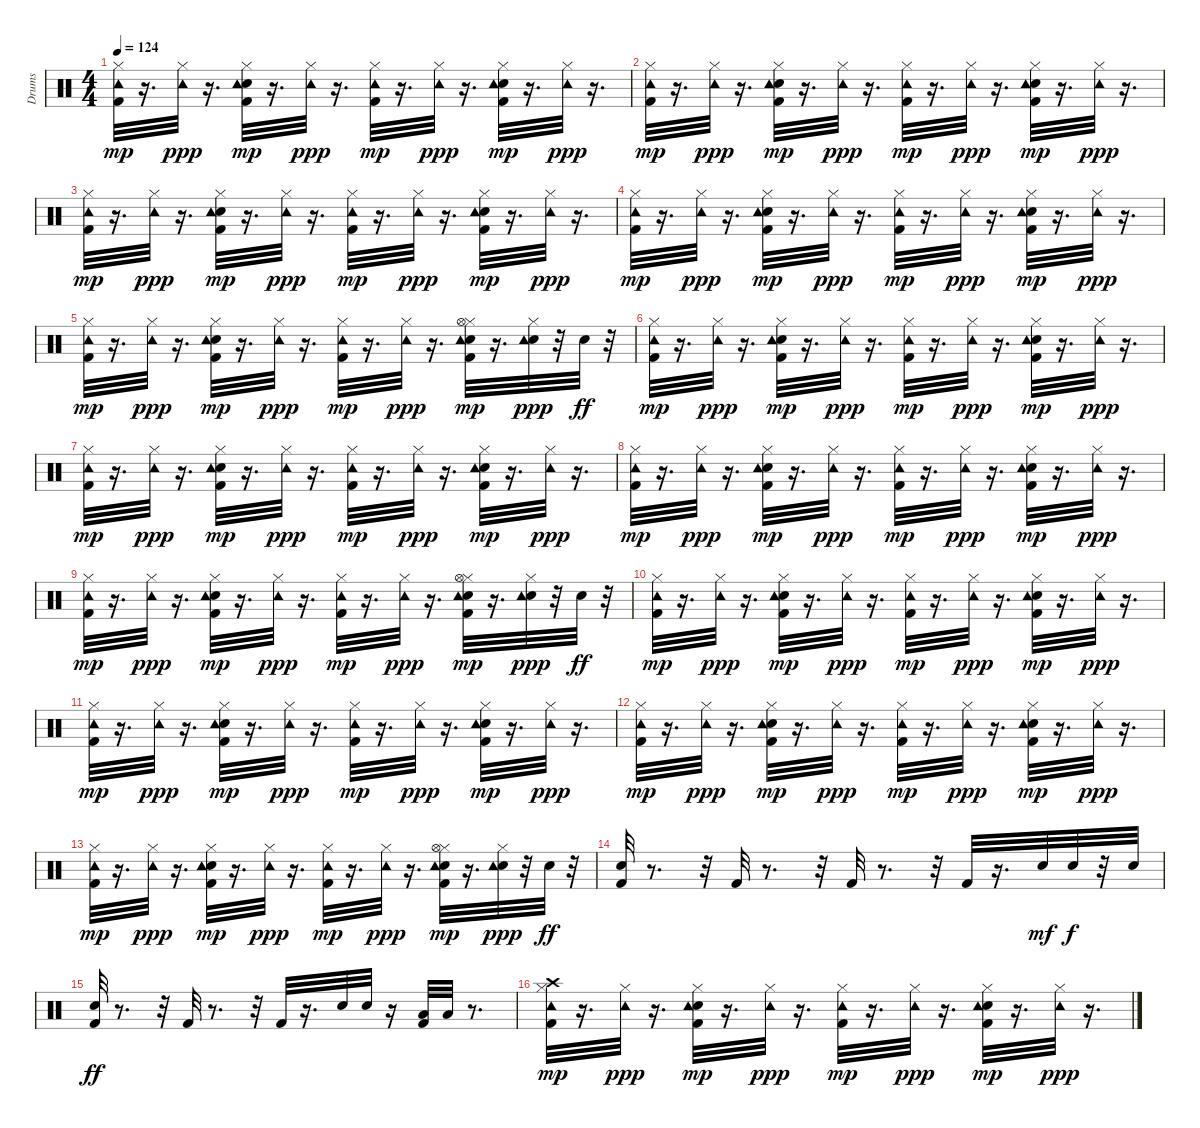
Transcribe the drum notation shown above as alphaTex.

\track ("Drums" "Drums") {instrument percussion}
\staff {score}
\articulation defaults
\ts (4 4)
\tempo 124
\clef neutral
\ks c
("Kick (hit) 2" "Hi-Hat (closed)" "Tambourine (hit)").32{dy mp} r.16{d} ("Hi-Hat (closed)" "Tambourine (hit)").32{dy ppp} r.16{d} ("Kick (hit) 2" "Electric Snare (hit)" "Hi-Hat (closed)" "Tambourine (hit)").32{dy mp} r.16{d} ("Hi-Hat (closed)" "Tambourine (hit)").32{dy ppp} r.16{d} ("Kick (hit) 2" "Hi-Hat (closed)" "Tambourine (hit)").32{dy mp} r.16{d} ("Hi-Hat (closed)" "Tambourine (hit)").32{dy ppp} r.16{d} ("Kick (hit) 2" "Electric Snare (hit)" "Hi-Hat (closed)" "Tambourine (hit)").32{dy mp} r.16{d} ("Hi-Hat (closed)" "Tambourine (hit)").32{dy ppp} r.16{d} |
("Kick (hit) 2" "Hi-Hat (closed)" "Tambourine (hit)").32{dy mp} r.16{d} ("Hi-Hat (closed)" "Tambourine (hit)").32{dy ppp} r.16{d} ("Kick (hit) 2" "Electric Snare (hit)" "Hi-Hat (closed)" "Tambourine (hit)").32{dy mp} r.16{d} ("Hi-Hat (closed)" "Tambourine (hit)").32{dy ppp} r.16{d} ("Kick (hit) 2" "Hi-Hat (closed)" "Tambourine (hit)").32{dy mp} r.16{d} ("Hi-Hat (closed)" "Tambourine (hit)").32{dy ppp} r.16{d} ("Kick (hit) 2" "Electric Snare (hit)" "Hi-Hat (closed)" "Tambourine (hit)").32{dy mp} r.16{d} ("Hi-Hat (closed)" "Tambourine (hit)").32{dy ppp} r.16{d} |
("Kick (hit) 2" "Hi-Hat (closed)" "Tambourine (hit)").32{dy mp} r.16{d} ("Hi-Hat (closed)" "Tambourine (hit)").32{dy ppp} r.16{d} ("Kick (hit) 2" "Electric Snare (hit)" "Hi-Hat (closed)" "Tambourine (hit)").32{dy mp} r.16{d} ("Hi-Hat (closed)" "Tambourine (hit)").32{dy ppp} r.16{d} ("Kick (hit) 2" "Hi-Hat (closed)" "Tambourine (hit)").32{dy mp} r.16{d} ("Hi-Hat (closed)" "Tambourine (hit)").32{dy ppp} r.16{d} ("Kick (hit) 2" "Electric Snare (hit)" "Hi-Hat (closed)" "Tambourine (hit)").32{dy mp} r.16{d} ("Hi-Hat (closed)" "Tambourine (hit)").32{dy ppp} r.16{d} |
("Kick (hit) 2" "Hi-Hat (closed)" "Tambourine (hit)").32{dy mp} r.16{d} ("Hi-Hat (closed)" "Tambourine (hit)").32{dy ppp} r.16{d} ("Kick (hit) 2" "Electric Snare (hit)" "Hi-Hat (closed)" "Tambourine (hit)").32{dy mp} r.16{d} ("Hi-Hat (closed)" "Tambourine (hit)").32{dy ppp} r.16{d} ("Kick (hit) 2" "Hi-Hat (closed)" "Tambourine (hit)").32{dy mp} r.16{d} ("Hi-Hat (closed)" "Tambourine (hit)").32{dy ppp} r.16{d} ("Kick (hit) 2" "Electric Snare (hit)" "Hi-Hat (closed)" "Tambourine (hit)").32{dy mp} r.16{d} ("Hi-Hat (closed)" "Tambourine (hit)").32{dy ppp} r.16{d} |
("Kick (hit) 2" "Hi-Hat (closed)" "Tambourine (hit)").32{dy mp} r.16{d} ("Hi-Hat (closed)" "Tambourine (hit)").32{dy ppp} r.16{d} ("Kick (hit) 2" "Electric Snare (hit)" "Hi-Hat (closed)" "Tambourine (hit)").32{dy mp} r.16{d} ("Hi-Hat (closed)" "Tambourine (hit)").32{dy ppp} r.16{d} ("Kick (hit) 2" "Hi-Hat (closed)" "Tambourine (hit)").32{dy mp} r.16{d} ("Hi-Hat (closed)" "Tambourine (hit)").32{dy ppp} r.16{d} ("Kick (hit) 2" "Electric Snare (hit)" "Hi-Hat (closed)" "Hi-Hat (open)" "Tambourine (hit)").32{dy mp} r.16{d} ("Electric Snare (hit)" "Hi-Hat (closed)" "Tambourine (hit)").32{dy ppp} r.32 "Electric Snare (hit)".32{dy ff} r.32 |
("Kick (hit) 2" "Hi-Hat (closed)" "Tambourine (hit)").32{dy mp} r.16{d} ("Hi-Hat (closed)" "Tambourine (hit)").32{dy ppp} r.16{d} ("Kick (hit) 2" "Electric Snare (hit)" "Hi-Hat (closed)" "Tambourine (hit)").32{dy mp} r.16{d} ("Hi-Hat (closed)" "Tambourine (hit)").32{dy ppp} r.16{d} ("Kick (hit) 2" "Hi-Hat (closed)" "Tambourine (hit)").32{dy mp} r.16{d} ("Hi-Hat (closed)" "Tambourine (hit)").32{dy ppp} r.16{d} ("Kick (hit) 2" "Electric Snare (hit)" "Hi-Hat (closed)" "Tambourine (hit)").32{dy mp} r.16{d} ("Hi-Hat (closed)" "Tambourine (hit)").32{dy ppp} r.16{d} |
("Kick (hit) 2" "Hi-Hat (closed)" "Tambourine (hit)").32{dy mp} r.16{d} ("Hi-Hat (closed)" "Tambourine (hit)").32{dy ppp} r.16{d} ("Kick (hit) 2" "Electric Snare (hit)" "Hi-Hat (closed)" "Tambourine (hit)").32{dy mp} r.16{d} ("Hi-Hat (closed)" "Tambourine (hit)").32{dy ppp} r.16{d} ("Kick (hit) 2" "Hi-Hat (closed)" "Tambourine (hit)").32{dy mp} r.16{d} ("Hi-Hat (closed)" "Tambourine (hit)").32{dy ppp} r.16{d} ("Kick (hit) 2" "Electric Snare (hit)" "Hi-Hat (closed)" "Tambourine (hit)").32{dy mp} r.16{d} ("Hi-Hat (closed)" "Tambourine (hit)").32{dy ppp} r.16{d} |
("Kick (hit) 2" "Hi-Hat (closed)" "Tambourine (hit)").32{dy mp} r.16{d} ("Hi-Hat (closed)" "Tambourine (hit)").32{dy ppp} r.16{d} ("Kick (hit) 2" "Electric Snare (hit)" "Hi-Hat (closed)" "Tambourine (hit)").32{dy mp} r.16{d} ("Hi-Hat (closed)" "Tambourine (hit)").32{dy ppp} r.16{d} ("Kick (hit) 2" "Hi-Hat (closed)" "Tambourine (hit)").32{dy mp} r.16{d} ("Hi-Hat (closed)" "Tambourine (hit)").32{dy ppp} r.16{d} ("Kick (hit) 2" "Electric Snare (hit)" "Hi-Hat (closed)" "Tambourine (hit)").32{dy mp} r.16{d} ("Hi-Hat (closed)" "Tambourine (hit)").32{dy ppp} r.16{d} |
("Kick (hit) 2" "Hi-Hat (closed)" "Tambourine (hit)").32{dy mp} r.16{d} ("Hi-Hat (closed)" "Tambourine (hit)").32{dy ppp} r.16{d} ("Kick (hit) 2" "Electric Snare (hit)" "Hi-Hat (closed)" "Tambourine (hit)").32{dy mp} r.16{d} ("Hi-Hat (closed)" "Tambourine (hit)").32{dy ppp} r.16{d} ("Kick (hit) 2" "Hi-Hat (closed)" "Tambourine (hit)").32{dy mp} r.16{d} ("Hi-Hat (closed)" "Tambourine (hit)").32{dy ppp} r.16{d} ("Kick (hit) 2" "Electric Snare (hit)" "Hi-Hat (closed)" "Hi-Hat (open)" "Tambourine (hit)").32{dy mp} r.16{d} ("Electric Snare (hit)" "Hi-Hat (closed)" "Tambourine (hit)").32{dy ppp} r.32 "Electric Snare (hit)".32{dy ff} r.32 |
("Kick (hit) 2" "Hi-Hat (closed)" "Tambourine (hit)").32{dy mp} r.16{d} ("Hi-Hat (closed)" "Tambourine (hit)").32{dy ppp} r.16{d} ("Kick (hit) 2" "Electric Snare (hit)" "Hi-Hat (closed)" "Tambourine (hit)").32{dy mp} r.16{d} ("Hi-Hat (closed)" "Tambourine (hit)").32{dy ppp} r.16{d} ("Kick (hit) 2" "Hi-Hat (closed)" "Tambourine (hit)").32{dy mp} r.16{d} ("Hi-Hat (closed)" "Tambourine (hit)").32{dy ppp} r.16{d} ("Kick (hit) 2" "Electric Snare (hit)" "Hi-Hat (closed)" "Tambourine (hit)").32{dy mp} r.16{d} ("Hi-Hat (closed)" "Tambourine (hit)").32{dy ppp} r.16{d} |
("Kick (hit) 2" "Hi-Hat (closed)" "Tambourine (hit)").32{dy mp} r.16{d} ("Hi-Hat (closed)" "Tambourine (hit)").32{dy ppp} r.16{d} ("Kick (hit) 2" "Electric Snare (hit)" "Hi-Hat (closed)" "Tambourine (hit)").32{dy mp} r.16{d} ("Hi-Hat (closed)" "Tambourine (hit)").32{dy ppp} r.16{d} ("Kick (hit) 2" "Hi-Hat (closed)" "Tambourine (hit)").32{dy mp} r.16{d} ("Hi-Hat (closed)" "Tambourine (hit)").32{dy ppp} r.16{d} ("Kick (hit) 2" "Electric Snare (hit)" "Hi-Hat (closed)" "Tambourine (hit)").32{dy mp} r.16{d} ("Hi-Hat (closed)" "Tambourine (hit)").32{dy ppp} r.16{d} |
("Kick (hit) 2" "Hi-Hat (closed)" "Tambourine (hit)").32{dy mp} r.16{d} ("Hi-Hat (closed)" "Tambourine (hit)").32{dy ppp} r.16{d} ("Kick (hit) 2" "Electric Snare (hit)" "Hi-Hat (closed)" "Tambourine (hit)").32{dy mp} r.16{d} ("Hi-Hat (closed)" "Tambourine (hit)").32{dy ppp} r.16{d} ("Kick (hit) 2" "Hi-Hat (closed)" "Tambourine (hit)").32{dy mp} r.16{d} ("Hi-Hat (closed)" "Tambourine (hit)").32{dy ppp} r.16{d} ("Kick (hit) 2" "Electric Snare (hit)" "Hi-Hat (closed)" "Tambourine (hit)").32{dy mp} r.16{d} ("Hi-Hat (closed)" "Tambourine (hit)").32{dy ppp} r.16{d} |
("Kick (hit) 2" "Hi-Hat (closed)" "Tambourine (hit)").32{dy mp} r.16{d} ("Hi-Hat (closed)" "Tambourine (hit)").32{dy ppp} r.16{d} ("Kick (hit) 2" "Electric Snare (hit)" "Hi-Hat (closed)" "Tambourine (hit)").32{dy mp} r.16{d} ("Hi-Hat (closed)" "Tambourine (hit)").32{dy ppp} r.16{d} ("Kick (hit) 2" "Hi-Hat (closed)" "Tambourine (hit)").32{dy mp} r.16{d} ("Hi-Hat (closed)" "Tambourine (hit)").32{dy ppp} r.16{d} ("Kick (hit) 2" "Electric Snare (hit)" "Hi-Hat (closed)" "Hi-Hat (open)" "Tambourine (hit)").32{dy mp} r.16{d} ("Electric Snare (hit)" "Hi-Hat (closed)" "Tambourine (hit)").32{dy ppp} r.32 "Electric Snare (hit)".32{dy ff} r.32 |
("Kick (hit) 2" "Electric Snare (hit)").32 r.8{d} r.32 "Kick (hit) 2".32 r.8{d} r.32 "Kick (hit) 2".32 r.8{d} r.32 "Kick (hit) 2".32 r.16{d} "Electric Snare (hit)".32{dy mf} "Electric Snare (hit)".32{dy f} r.32 "Electric Snare (hit)".32 |
("Kick (hit) 2" "Electric Snare (hit)").32{dy ff} r.8{d} r.32 "Kick (hit) 2".32 r.8{d} r.32 "Kick (hit) 2".32 r.16{d} "Electric Snare (hit)".32 "Electric Snare (hit)".32 r.16 ("Kick (hit) 2" "Low Tom (hit)").32 "Low Floor Tom (hit)".32 r.8{d} |
("Kick (hit) 2" "Hi-Hat (closed)" "Crash high (hit)" "Tambourine (hit)").32{dy mp} r.16{d} ("Hi-Hat (closed)" "Tambourine (hit)").32{dy ppp} r.16{d} ("Kick (hit) 2" "Electric Snare (hit)" "Hi-Hat (closed)" "Tambourine (hit)").32{dy mp} r.16{d} ("Hi-Hat (closed)" "Tambourine (hit)").32{dy ppp} r.16{d} ("Kick (hit) 2" "Hi-Hat (closed)" "Tambourine (hit)").32{dy mp} r.16{d} ("Hi-Hat (closed)" "Tambourine (hit)").32{dy ppp} r.16{d} ("Kick (hit) 2" "Electric Snare (hit)" "Hi-Hat (closed)" "Tambourine (hit)").32{dy mp} r.16{d} ("Hi-Hat (closed)" "Tambourine (hit)").32{dy ppp} r.16{d}
